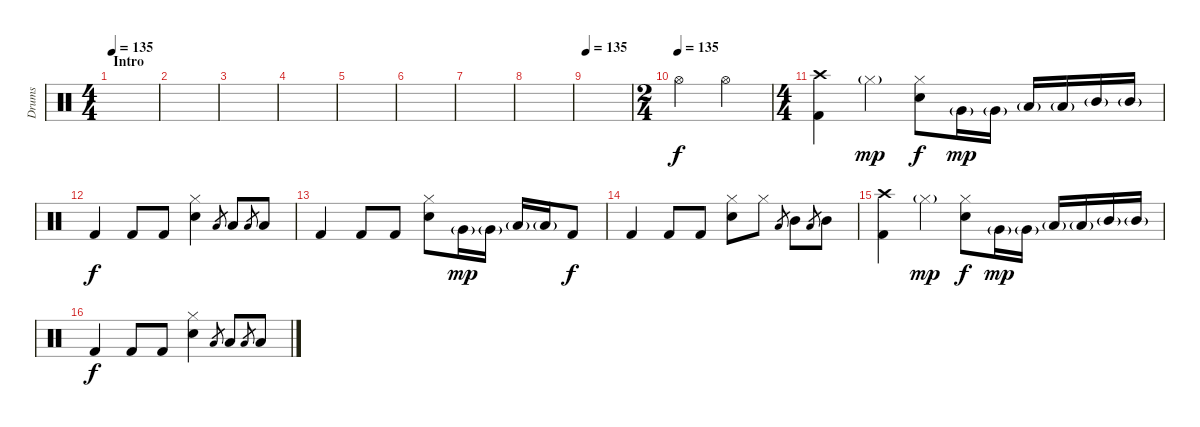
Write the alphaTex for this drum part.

\track ("Drums" "Drums") {instrument percussion}
\staff {score}
\articulation defaults
\ts (4 4)
\section ("" "Intro")
\tempo 135
\tempo 150
\tempo 135
\clef neutral
\ks c
|
|
|
|
|
|
|
|
\tempo 135
|
\ts (2 4)
\tempo (135)
"Hi-Hat (open)".4 "Hi-Hat (open)".4 |
\ts (4 4)
("Crash high (hit)" "Kick (hit) 2").4 "Hi-Hat (closed)"{g}.4{dy mp} ("Hi-Hat (closed)" "Electric Snare (hit)").8{dy f} "Very Low Tom (hit)"{g}.16{dy mp} "Very Low Tom (hit)"{g}.16 "Low Tom (hit)"{g}.16 "Low Tom (hit)"{g}.16 "Mid Tom (hit)"{g}.16 "Mid Tom (hit)"{g}.16 |
"Kick (hit) 2".4{dy f} "Kick (hit) 2".8 "Kick (hit) 2".8 ("Hi-Hat (closed)" "Electric Snare (hit)").4 "Low Tom (hit)".8{gr} "Low Tom (hit)".8 "Low Tom (hit)".8{gr} "Low Tom (hit)".8 |
"Kick (hit) 2".4 "Kick (hit) 2".8 "Kick (hit) 2".8 ("Hi-Hat (closed)" "Electric Snare (hit)").8 "Very Low Tom (hit)"{g}.16{dy mp} "Very Low Tom (hit)"{g}.16 "Low Tom (hit)"{g}.16 "Low Tom (hit)"{g}.16 "Kick (hit) 2".8{dy f} |
"Kick (hit) 2".4 "Kick (hit) 2".8 "Kick (hit) 2".8 ("Hi-Hat (closed)" "Electric Snare (hit)").8 "Hi-Hat (closed)".8 "Low Tom (hit)".8{gr} "Mid Tom (hit)".8 "Low Tom (hit)".8{gr} "Mid Tom (hit)".8 |
("Crash high (hit)" "Kick (hit) 2").4 "Hi-Hat (closed)"{g}.4{dy mp} ("Hi-Hat (closed)" "Electric Snare (hit)").8{dy f} "Very Low Tom (hit)"{g}.16{dy mp} "Very Low Tom (hit)"{g}.16 "Low Tom (hit)"{g}.16 "Low Tom (hit)"{g}.16 "Mid Tom (hit)"{g}.16 "Mid Tom (hit)"{g}.16 |
"Kick (hit) 2".4{dy f} "Kick (hit) 2".8 "Kick (hit) 2".8 ("Hi-Hat (closed)" "Electric Snare (hit)").4 "Low Tom (hit)".8{gr} "Low Tom (hit)".8 "Low Tom (hit)".8{gr} "Low Tom (hit)".8
